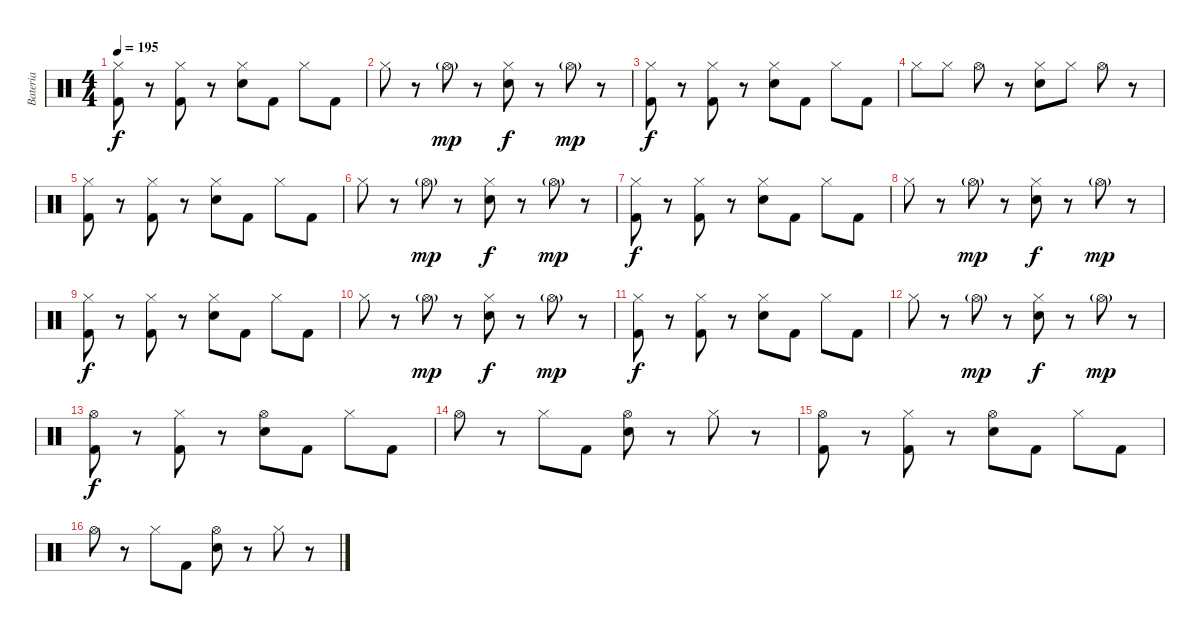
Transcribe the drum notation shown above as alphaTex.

\track ("Bateria" "Bateria") {instrument percussion}
\staff {score}
\articulation defaults
\ts (4 4)
\tempo 195
\clef neutral
\ks c
("Hi-Hat (closed)" "Kick (hit) 2").8{dy f} r.8 ("Hi-Hat (closed)" "Kick (hit) 2").8 r.8 ("Hi-Hat (closed)" "Snare (hit) 2").8 "Kick (hit) 2".8 "Hi-Hat (closed)".8 "Kick (hit) 2".8 |
"Hi-Hat (closed)".8 r.8 "Hi-Hat (open)"{g}.8{dy mp} r.8 ("Hi-Hat (closed)" "Snare (hit) 2").8{dy f} r.8 "Hi-Hat (open)"{g}.8{dy mp} r.8 |
("Hi-Hat (closed)" "Kick (hit) 2").8{dy f} r.8 ("Hi-Hat (closed)" "Kick (hit) 2").8 r.8 ("Hi-Hat (closed)" "Snare (hit) 2").8 "Kick (hit) 2".8 "Hi-Hat (closed)".8 "Kick (hit) 2".8 |
"Hi-Hat (closed)".8 "Hi-Hat (closed)".8 "Hi-Hat (open)".8 r.8 ("Hi-Hat (closed)" "Snare (hit) 2").8 "Hi-Hat (closed)".8 "Hi-Hat (open)".8 r.8 |
("Hi-Hat (closed)" "Kick (hit) 2").8 r.8 ("Hi-Hat (closed)" "Kick (hit) 2").8 r.8 ("Hi-Hat (closed)" "Snare (hit) 2").8 "Kick (hit) 2".8 "Hi-Hat (closed)".8 "Kick (hit) 2".8 |
"Hi-Hat (closed)".8 r.8 "Hi-Hat (open)"{g}.8{dy mp} r.8 ("Hi-Hat (closed)" "Snare (hit) 2").8{dy f} r.8 "Hi-Hat (open)"{g}.8{dy mp} r.8 |
("Hi-Hat (closed)" "Kick (hit) 2").8{dy f} r.8 ("Hi-Hat (closed)" "Kick (hit) 2").8 r.8 ("Hi-Hat (closed)" "Snare (hit) 2").8 "Kick (hit) 2".8 "Hi-Hat (closed)".8 "Kick (hit) 2".8 |
"Hi-Hat (closed)".8 r.8 "Hi-Hat (open)"{g}.8{dy mp} r.8 ("Hi-Hat (closed)" "Snare (hit) 2").8{dy f} r.8 "Hi-Hat (open)"{g}.8{dy mp} r.8 |
("Hi-Hat (closed)" "Kick (hit) 2").8{dy f} r.8 ("Hi-Hat (closed)" "Kick (hit) 2").8 r.8 ("Hi-Hat (closed)" "Snare (hit) 2").8 "Kick (hit) 2".8 "Hi-Hat (closed)".8 "Kick (hit) 2".8 |
"Hi-Hat (closed)".8 r.8 "Hi-Hat (open)"{g}.8{dy mp} r.8 ("Hi-Hat (closed)" "Snare (hit) 2").8{dy f} r.8 "Hi-Hat (open)"{g}.8{dy mp} r.8 |
("Hi-Hat (closed)" "Kick (hit) 2").8{dy f} r.8 ("Hi-Hat (closed)" "Kick (hit) 2").8 r.8 ("Hi-Hat (closed)" "Snare (hit) 2").8 "Kick (hit) 2".8 "Hi-Hat (closed)".8 "Kick (hit) 2".8 |
"Hi-Hat (closed)".8 r.8 "Hi-Hat (open)"{g}.8{dy mp} r.8 ("Hi-Hat (closed)" "Snare (hit) 2").8{dy f} r.8 "Hi-Hat (open)"{g}.8{dy mp} r.8 |
("Hi-Hat (open)" "Kick (hit) 2").8{dy f} r.8 ("Hi-Hat (closed)" "Kick (hit) 2").8 r.8 ("Hi-Hat (open)" "Snare (hit) 2").8 "Kick (hit) 2".8 "Hi-Hat (closed)".8 "Kick (hit) 2".8 |
"Hi-Hat (open)".8 r.8 "Hi-Hat (closed)".8 "Kick (hit) 2".8 ("Hi-Hat (open)" "Snare (hit) 2").8 r.8 "Hi-Hat (closed)".8 r.8 |
("Hi-Hat (open)" "Kick (hit) 2").8 r.8 ("Hi-Hat (closed)" "Kick (hit) 2").8 r.8 ("Hi-Hat (open)" "Snare (hit) 2").8 "Kick (hit) 2".8 "Hi-Hat (closed)".8 "Kick (hit) 2".8 |
"Hi-Hat (open)".8 r.8 "Hi-Hat (closed)".8 "Kick (hit) 2".8 ("Hi-Hat (open)" "Snare (hit) 2").8 r.8 "Hi-Hat (closed)".8 r.8
